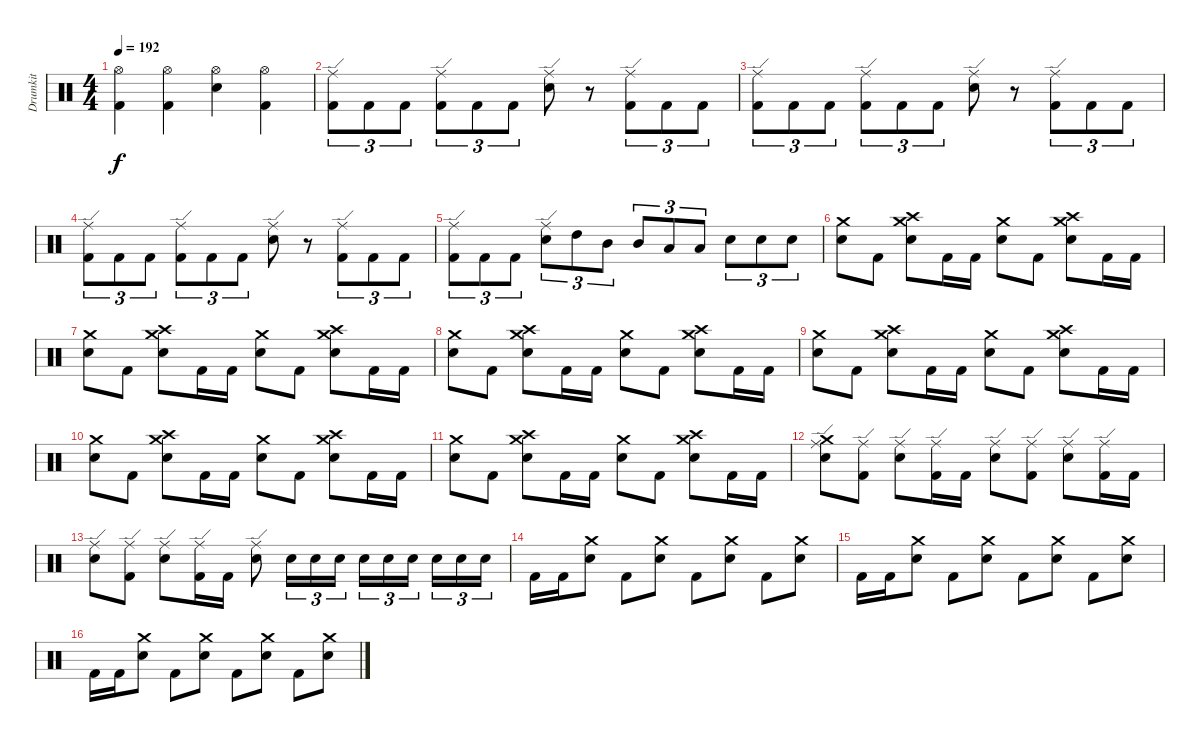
\track ("Drumkit" "Drumkit") {instrument percussion}
\staff {score}
\articulation defaults
\ts (4 4)
\tempo 192
\clef neutral
\ks c
("Kick (hit) 2" "Hi-Hat (open)").4{dy f} ("Kick (hit) 2" "Hi-Hat (open)").4 ("Snare (hit) 2" "Hi-Hat (open)").4 ("Kick (hit) 2" "Hi-Hat (open)").4 |
("Kick (hit) 2" "Ride (edge)").8{tu (3 2)} "Kick (hit) 2".8{tu (3 2)} "Kick (hit) 2".8{tu (3 2)} ("Kick (hit) 2" "Ride (edge)").8{tu (3 2)} "Kick (hit) 2".8{tu (3 2)} "Kick (hit) 2".8{tu (3 2)} ("Snare (hit) 2" "Ride (edge)").8 r.8 ("Kick (hit) 2" "Ride (edge)").8{tu (3 2)} "Kick (hit) 2".8{tu (3 2)} "Kick (hit) 2".8{tu (3 2)} |
("Kick (hit) 2" "Ride (edge)").8{tu (3 2)} "Kick (hit) 2".8{tu (3 2)} "Kick (hit) 2".8{tu (3 2)} ("Kick (hit) 2" "Ride (edge)").8{tu (3 2)} "Kick (hit) 2".8{tu (3 2)} "Kick (hit) 2".8{tu (3 2)} ("Snare (hit) 2" "Ride (edge)").8 r.8 ("Kick (hit) 2" "Ride (edge)").8{tu (3 2)} "Kick (hit) 2".8{tu (3 2)} "Kick (hit) 2".8{tu (3 2)} |
("Kick (hit) 2" "Ride (edge)").8{tu (3 2)} "Kick (hit) 2".8{tu (3 2)} "Kick (hit) 2".8{tu (3 2)} ("Kick (hit) 2" "Ride (edge)").8{tu (3 2)} "Kick (hit) 2".8{tu (3 2)} "Kick (hit) 2".8{tu (3 2)} ("Snare (hit) 2" "Ride (edge)").8 r.8 ("Kick (hit) 2" "Ride (edge)").8{tu (3 2)} "Kick (hit) 2".8{tu (3 2)} "Kick (hit) 2".8{tu (3 2)} |
("Ride (edge)" "Kick (hit) 2").8{tu (3 2)} "Kick (hit) 2".8{tu (3 2)} "Kick (hit) 2".8{tu (3 2)} ("Snare (hit) 2" "Ride (edge)").8{tu (3 2)} "High Tom (hit)".8{tu (3 2)} "Mid Tom (hit)".8{tu (3 2)} "Mid Tom (hit)".8{tu (3 2)} "Low Tom (hit)".8{tu (3 2)} "Low Tom (hit)".8{tu (3 2)} "Snare (hit) 2".8{tu (3 2)} "Snare (hit) 2".8{tu (3 2)} "Snare (hit) 2".8{tu (3 2)} |
("Crash medium (hit)" "Snare (hit) 2").8 "Kick (hit) 2".8 ("Snare (hit) 2" "Crash medium (hit)" "Crash high (hit)").8 "Kick (hit) 2".16 "Kick (hit) 2".16 ("Crash medium (hit)" "Snare (hit) 2").8 "Kick (hit) 2".8 ("Snare (hit) 2" "Crash medium (hit)" "Crash high (hit)").8 "Kick (hit) 2".16 "Kick (hit) 2".16 |
("Crash medium (hit)" "Snare (hit) 2").8 "Kick (hit) 2".8 ("Snare (hit) 2" "Crash medium (hit)" "Crash high (hit)").8 "Kick (hit) 2".16 "Kick (hit) 2".16 ("Crash medium (hit)" "Snare (hit) 2").8 "Kick (hit) 2".8 ("Snare (hit) 2" "Crash medium (hit)" "Crash high (hit)").8 "Kick (hit) 2".16 "Kick (hit) 2".16 |
("Crash medium (hit)" "Snare (hit) 2").8 "Kick (hit) 2".8 ("Snare (hit) 2" "Crash medium (hit)" "Crash high (hit)").8 "Kick (hit) 2".16 "Kick (hit) 2".16 ("Crash medium (hit)" "Snare (hit) 2").8 "Kick (hit) 2".8 ("Snare (hit) 2" "Crash medium (hit)" "Crash high (hit)").8 "Kick (hit) 2".16 "Kick (hit) 2".16 |
("Crash medium (hit)" "Snare (hit) 2").8 "Kick (hit) 2".8 ("Snare (hit) 2" "Crash medium (hit)" "Crash high (hit)").8 "Kick (hit) 2".16 "Kick (hit) 2".16 ("Crash medium (hit)" "Snare (hit) 2").8 "Kick (hit) 2".8 ("Snare (hit) 2" "Crash medium (hit)" "Crash high (hit)").8 "Kick (hit) 2".16 "Kick (hit) 2".16 |
("Crash medium (hit)" "Snare (hit) 2").8 "Kick (hit) 2".8 ("Snare (hit) 2" "Crash medium (hit)" "Crash high (hit)").8 "Kick (hit) 2".16 "Kick (hit) 2".16 ("Crash medium (hit)" "Snare (hit) 2").8 "Kick (hit) 2".8 ("Snare (hit) 2" "Crash medium (hit)" "Crash high (hit)").8 "Kick (hit) 2".16 "Kick (hit) 2".16 |
("Crash medium (hit)" "Snare (hit) 2").8 "Kick (hit) 2".8 ("Snare (hit) 2" "Crash medium (hit)" "Crash high (hit)").8 "Kick (hit) 2".16 "Kick (hit) 2".16 ("Crash medium (hit)" "Snare (hit) 2").8 "Kick (hit) 2".8 ("Snare (hit) 2" "Crash medium (hit)" "Crash high (hit)").8 "Kick (hit) 2".16 "Kick (hit) 2".16 |
("Crash medium (hit)" "Snare (hit) 2" "Ride (edge)").8 ("Kick (hit) 2" "Ride (edge)").8 ("Snare (hit) 2" "Ride (edge)").8 ("Kick (hit) 2" "Ride (edge)").16 "Kick (hit) 2".16 ("Snare (hit) 2" "Ride (edge)").8 ("Kick (hit) 2" "Ride (edge)").8 ("Snare (hit) 2" "Ride (edge)").8 ("Kick (hit) 2" "Ride (edge)").16 "Kick (hit) 2".16 |
("Ride (edge)" "Snare (hit) 2").8 ("Ride (edge)" "Kick (hit) 2").8 ("Snare (hit) 2" "Ride (edge)").8 ("Ride (edge)" "Kick (hit) 2").16 "Kick (hit) 2".16 ("Snare (hit) 2" "Ride (edge)").8 "Snare (hit) 2".16{tu (3 2)} "Snare (hit) 2".16{tu (3 2)} "Snare (hit) 2".16{tu (3 2)} "Snare (hit) 2".16{tu (3 2)} "Snare (hit) 2".16{tu (3 2)} "Snare (hit) 2".16{tu (3 2)} "Snare (hit) 2".16{tu (3 2)} "Snare (hit) 2".16{tu (3 2)} "Snare (hit) 2".16{tu (3 2)} |
"Kick (hit) 2".16 "Kick (hit) 2".16 ("Snare (hit) 2" "Crash medium (hit)").8 "Kick (hit) 2".8 ("Snare (hit) 2" "Crash medium (hit)").8 "Kick (hit) 2".8 ("Snare (hit) 2" "Crash medium (hit)").8 "Kick (hit) 2".8 ("Snare (hit) 2" "Crash medium (hit)").8 |
"Kick (hit) 2".16 "Kick (hit) 2".16 ("Snare (hit) 2" "Crash medium (hit)").8 "Kick (hit) 2".8 ("Snare (hit) 2" "Crash medium (hit)").8 "Kick (hit) 2".8 ("Snare (hit) 2" "Crash medium (hit)").8 "Kick (hit) 2".8 ("Snare (hit) 2" "Crash medium (hit)").8 |
"Kick (hit) 2".16 "Kick (hit) 2".16 ("Snare (hit) 2" "Crash medium (hit)").8 "Kick (hit) 2".8 ("Snare (hit) 2" "Crash medium (hit)").8 "Kick (hit) 2".8 ("Snare (hit) 2" "Crash medium (hit)").8 "Kick (hit) 2".8 ("Snare (hit) 2" "Crash medium (hit)").8
